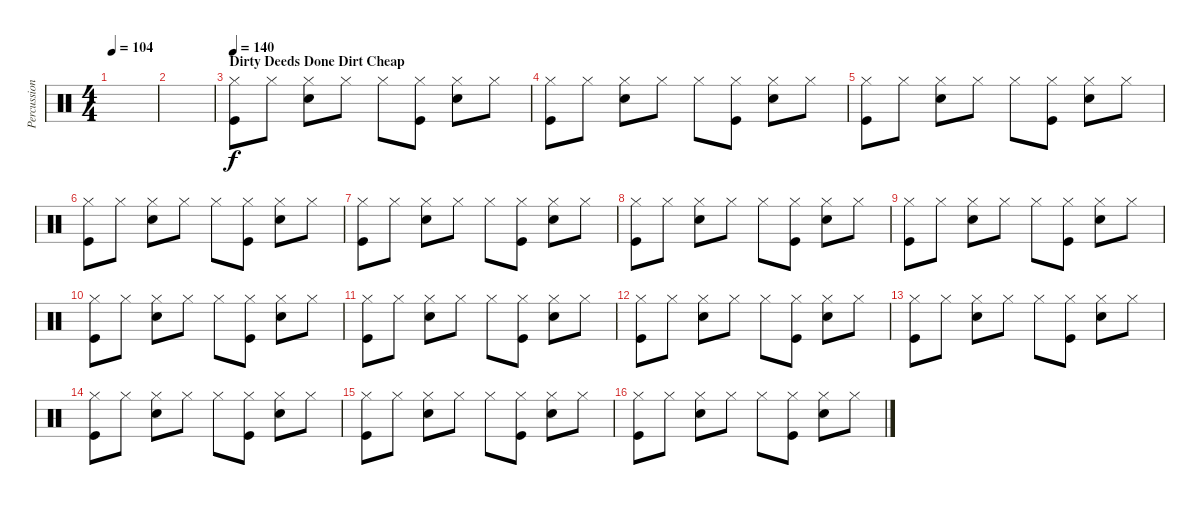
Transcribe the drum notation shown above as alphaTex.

\track ("Percussions" "Percussion") {instrument percussion}
\staff {score}
\articulation defaults
\ts (4 4)
\tempo 104
\clef neutral
\ks c
|
|
\section ("" "Dirty Deeds Done Dirt Cheap")
\tempo 140
("Hi-Hat (closed)" "Kick (hit)").8 "Hi-Hat (closed)".8 ("Hi-Hat (closed)" "Snare (hit) 2").8 "Hi-Hat (closed)".8 "Hi-Hat (closed)".8 ("Hi-Hat (closed)" "Kick (hit)").8 ("Hi-Hat (closed)" "Snare (hit) 2").8 "Hi-Hat (closed)".8 |
("Hi-Hat (closed)" "Kick (hit)").8 "Hi-Hat (closed)".8 ("Hi-Hat (closed)" "Snare (hit) 2").8 "Hi-Hat (closed)".8 "Hi-Hat (closed)".8 ("Hi-Hat (closed)" "Kick (hit)").8 ("Hi-Hat (closed)" "Snare (hit) 2").8 "Hi-Hat (closed)".8 |
("Hi-Hat (closed)" "Kick (hit)").8 "Hi-Hat (closed)".8 ("Hi-Hat (closed)" "Snare (hit) 2").8 "Hi-Hat (closed)".8 "Hi-Hat (closed)".8 ("Hi-Hat (closed)" "Kick (hit)").8 ("Hi-Hat (closed)" "Snare (hit) 2").8 "Hi-Hat (closed)".8 |
("Hi-Hat (closed)" "Kick (hit)").8 "Hi-Hat (closed)".8 ("Hi-Hat (closed)" "Snare (hit) 2").8 "Hi-Hat (closed)".8 "Hi-Hat (closed)".8 ("Hi-Hat (closed)" "Kick (hit)").8 ("Hi-Hat (closed)" "Snare (hit) 2").8 "Hi-Hat (closed)".8 |
("Hi-Hat (closed)" "Kick (hit)").8 "Hi-Hat (closed)".8 ("Hi-Hat (closed)" "Snare (hit) 2").8 "Hi-Hat (closed)".8 "Hi-Hat (closed)".8 ("Hi-Hat (closed)" "Kick (hit)").8 ("Hi-Hat (closed)" "Snare (hit) 2").8 "Hi-Hat (closed)".8 |
("Hi-Hat (closed)" "Kick (hit)").8 "Hi-Hat (closed)".8 ("Hi-Hat (closed)" "Snare (hit) 2").8 "Hi-Hat (closed)".8 "Hi-Hat (closed)".8 ("Hi-Hat (closed)" "Kick (hit)").8 ("Hi-Hat (closed)" "Snare (hit) 2").8 "Hi-Hat (closed)".8 |
("Hi-Hat (closed)" "Kick (hit)").8 "Hi-Hat (closed)".8 ("Hi-Hat (closed)" "Snare (hit) 2").8 "Hi-Hat (closed)".8 "Hi-Hat (closed)".8 ("Hi-Hat (closed)" "Kick (hit)").8 ("Hi-Hat (closed)" "Snare (hit) 2").8 "Hi-Hat (closed)".8 |
("Hi-Hat (closed)" "Kick (hit)").8 "Hi-Hat (closed)".8 ("Hi-Hat (closed)" "Snare (hit) 2").8 "Hi-Hat (closed)".8 "Hi-Hat (closed)".8 ("Hi-Hat (closed)" "Kick (hit)").8 ("Hi-Hat (closed)" "Snare (hit) 2").8 "Hi-Hat (closed)".8 |
("Hi-Hat (closed)" "Kick (hit)").8 "Hi-Hat (closed)".8 ("Hi-Hat (closed)" "Snare (hit) 2").8 "Hi-Hat (closed)".8 "Hi-Hat (closed)".8 ("Hi-Hat (closed)" "Kick (hit)").8 ("Hi-Hat (closed)" "Snare (hit) 2").8 "Hi-Hat (closed)".8 |
("Hi-Hat (closed)" "Kick (hit)").8 "Hi-Hat (closed)".8 ("Hi-Hat (closed)" "Snare (hit) 2").8 "Hi-Hat (closed)".8 "Hi-Hat (closed)".8 ("Hi-Hat (closed)" "Kick (hit)").8 ("Hi-Hat (closed)" "Snare (hit) 2").8 "Hi-Hat (closed)".8 |
("Hi-Hat (closed)" "Kick (hit)").8 "Hi-Hat (closed)".8 ("Hi-Hat (closed)" "Snare (hit) 2").8 "Hi-Hat (closed)".8 "Hi-Hat (closed)".8 ("Hi-Hat (closed)" "Kick (hit)").8 ("Hi-Hat (closed)" "Snare (hit) 2").8 "Hi-Hat (closed)".8 |
("Hi-Hat (closed)" "Kick (hit)").8 "Hi-Hat (closed)".8 ("Hi-Hat (closed)" "Snare (hit) 2").8 "Hi-Hat (closed)".8 "Hi-Hat (closed)".8 ("Hi-Hat (closed)" "Kick (hit)").8 ("Hi-Hat (closed)" "Snare (hit) 2").8 "Hi-Hat (closed)".8 |
("Hi-Hat (closed)" "Kick (hit)").8 "Hi-Hat (closed)".8 ("Hi-Hat (closed)" "Snare (hit) 2").8 "Hi-Hat (closed)".8 "Hi-Hat (closed)".8 ("Hi-Hat (closed)" "Kick (hit)").8 ("Hi-Hat (closed)" "Snare (hit) 2").8 "Hi-Hat (closed)".8 |
("Hi-Hat (closed)" "Kick (hit)").8 "Hi-Hat (closed)".8 ("Hi-Hat (closed)" "Snare (hit) 2").8 "Hi-Hat (closed)".8 "Hi-Hat (closed)".8 ("Hi-Hat (closed)" "Kick (hit)").8 ("Hi-Hat (closed)" "Snare (hit) 2").8 "Hi-Hat (closed)".8
